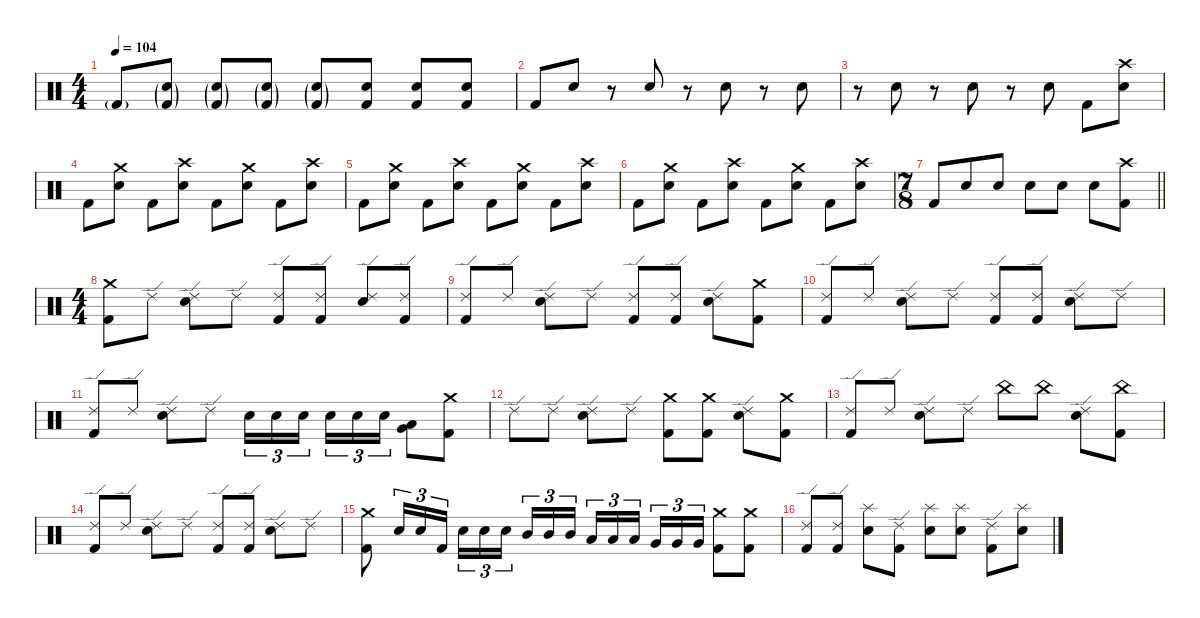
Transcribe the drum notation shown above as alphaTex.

\defaultSystemsLayout 4
\hideDynamics
\bracketExtendMode nobrackets
\singleTrackTrackNamePolicy hidden
\multiTrackTrackNamePolicy hidden
\firstSystemTrackNameMode fullname
\firstSystemTrackNameOrientation horizontal
\otherSystemsTrackNameOrientation horizontal
\track ("Drums" "drm.") {instrument percussion}
\staff {score}
\articulation defaults
\ts (4 4)
\tempo 104
\clef neutral
\ks c "Kick (hit) 2"{g}.8{dy mp beam Up}
("Snare (hit) 2"{g} "Kick (hit) 2"{g}).8{beam Up} ("Snare (hit) 2"{g} "Kick (hit) 2"{g}).8{beam Up} ("Snare (hit) 2"{g} "Kick (hit) 2"{g}).8{dy mf beam Up} ("Snare (hit) 2"{g} "Kick (hit) 2"{g}).8{beam Up} ("Snare (hit) 2" "Kick (hit) 2").8{beam Up} ("Snare (hit) 2" "Kick (hit) 2").8{beam Up} ("Snare (hit) 2" "Kick (hit) 2").8{beam Up} |
"Kick (hit) 2".8{dy f beam Up} "Snare (hit) 2".8{beam Up} r.8{beam Up} "Snare (hit) 2".8{beam Down} r.8{beam Down} "Snare (hit) 2".8{beam Down} r.8{beam Down} "Snare (hit) 2".8{beam Down} |
r.8{beam Down} "Snare (hit) 2".8{beam Down} r.8{beam Down} "Snare (hit) 2".8{beam Down} r.8{beam Down} "Snare (hit) 2".8{beam Down} "Kick (hit) 2".8{beam Down} ("Crash high (hit)" "Snare (hit) 2").8{beam Down} |
"Kick (hit) 2".8{beam Down} ("Crash medium (hit)" "Snare (hit) 2").8{beam Down} "Kick (hit) 2".8{beam Down} ("Crash high (hit)" "Snare (hit) 2").8{beam Down} "Kick (hit) 2".8{beam Down} ("Crash medium (hit)" "Snare (hit) 2").8{beam Down} "Kick (hit) 2".8{beam Down} ("Crash high (hit)" "Snare (hit) 2").8{beam Down} |
"Kick (hit) 2".8{beam Down} ("Crash medium (hit)" "Snare (hit) 2").8{beam Down} "Kick (hit) 2".8{beam Down} ("Crash high (hit)" "Snare (hit) 2").8{beam Down} "Kick (hit) 2".8{beam Down} ("Crash medium (hit)" "Snare (hit) 2").8{beam Down} "Kick (hit) 2".8{beam Down} ("Crash high (hit)" "Snare (hit) 2").8{beam Down} |
"Kick (hit) 2".8{beam Down} ("Crash medium (hit)" "Snare (hit) 2").8{beam Down} "Kick (hit) 2".8{beam Down} ("Crash high (hit)" "Snare (hit) 2").8{beam Down} "Kick (hit) 2".8{beam Down} ("Crash medium (hit)" "Snare (hit) 2").8{beam Down} "Kick (hit) 2".8{beam Down} ("Crash high (hit)" "Snare (hit) 2").8{beam Down} |
\ts (7 8)
\beaming (8 3 2 2)
\barLineRight lightlight "Kick (hit) 2".8{beam Up} "Snare (hit) 2".8{beam Up} "Snare (hit) 2".8{beam Up} "Snare (hit) 2".8{beam Down} "Snare (hit) 2".8{beam Down} "Snare (hit) 2".8{beam Down}
("Crash high (hit)" "Kick (hit) 2").8{beam Down} |
\ts (4 4)
\beaming (8 2 2 2 2)
\section ("" "")
("Crash medium (hit)" "Kick (hit) 2").8{beam Down} "Ride (edge) 2".8{beam Down} ("Ride (edge) 2" "Snare (hit) 2").8{beam Down} "Ride (edge) 2".8{beam Down} ("Ride (edge) 2" "Kick (hit) 2").8{beam Up} ("Ride (edge) 2" "Kick (hit) 2").8{beam Up} ("Ride (edge) 2" "Snare (hit) 2").8{beam Up} ("Ride (edge) 2" "Kick (hit) 2").8{beam Up} |
("Ride (edge) 2" "Kick (hit) 2").8{beam Up} "Ride (edge) 2".8{beam Up} ("Ride (edge) 2" "Snare (hit) 2").8{beam Down} "Ride (edge) 2".8{beam Down} ("Ride (edge) 2" "Kick (hit) 2").8{beam Up} ("Ride (edge) 2" "Kick (hit) 2").8{beam Up} ("Ride (edge) 2" "Snare (hit) 2").8{beam Down} ("Crash medium (hit)" "Kick (hit) 2").8{beam Down} |
("Ride (edge) 2" "Kick (hit) 2").8{beam Up} "Ride (edge) 2".8{beam Up} ("Ride (edge) 2" "Snare (hit) 2").8{beam Down} "Ride (edge) 2".8{beam Down} ("Ride (edge) 2" "Kick (hit) 2").8{beam Up} ("Ride (edge) 2" "Kick (hit) 2").8{beam Up} ("Ride (edge) 2" "Snare (hit) 2").8{beam Down} "Ride (edge) 2".8{beam Down} |
("Ride (edge) 2" "Kick (hit) 2").8{beam Up} "Ride (edge) 2".8{beam Up} ("Ride (edge) 2" "Snare (hit) 2").8{beam Down} "Ride (edge) 2".8{beam Down} "Snare (hit) 2".16{tu (3 2) beam Down} "Snare (hit) 2".16{tu (3 2) beam Down} "Snare (hit) 2".16{tu (3 2) beam Down} "Snare (hit) 2".16{tu (3 2) beam Down} "Snare (hit) 2".16{tu (3 2) beam Down} "Snare (hit) 2".16{tu (3 2) beam Down} ("Low Tom (hit)" "Very Low Tom (hit)").8{beam Down} ("Crash medium (hit)" "Kick (hit) 2").8{beam Down} |
"Ride (edge) 2".8{beam Down} "Ride (edge) 2".8{beam Down} ("Ride (edge) 2" "Snare (hit) 2").8{beam Down} "Ride (edge) 2".8{beam Down} ("Crash medium (hit)" "Kick (hit) 2").8{beam Down} ("Crash medium (hit)" "Kick (hit) 2").8{beam Down} ("Ride (edge) 2" "Snare (hit) 2").8{beam Down} ("Crash medium (hit)" "Kick (hit) 2").8{beam Down} |
("Ride (edge) 2" "Kick (hit) 2").8{beam Up} "Ride (edge) 2".8{beam Up} ("Ride (edge) 2" "Snare (hit) 2").8{beam Down} "Ride (edge) 2".8{beam Down} "China (hit)".8{beam Down} "China (hit)".8{beam Down} ("Ride (edge) 2" "Snare (hit) 2").8{beam Down} ("China (hit)" "Kick (hit) 2").8{beam Down} |
("Ride (edge) 2" "Kick (hit) 2").8{beam Up} "Ride (edge) 2".8{beam Up} ("Ride (edge) 2" "Snare (hit) 2").8{beam Down} "Ride (edge) 2".8{beam Down} ("Ride (edge) 2" "Kick (hit) 2").8{beam Up} ("Ride (edge) 2" "Kick (hit) 2").8{beam Up} ("Ride (edge) 2" "Snare (hit) 2").8{beam Down} "Ride (edge) 2".8{beam Down} |
("Crash medium (hit)" "Kick (hit) 2").8{beam Down} "Snare (hit) 2".16{tu (3 2) beam Up} "Snare (hit) 2".16{tu (3 2) beam Up} "Kick (hit) 2".16{tu (3 2) beam Up} "Snare (hit) 2".16{tu (3 2) beam Down} "Snare (hit) 2".16{tu (3 2) beam Down} "Snare (hit) 2".16{tu (3 2) beam Down} "Mid Tom (hit)".16{tu (3 2) beam Up} "Mid Tom (hit)".16{tu (3 2) beam Up} "Mid Tom (hit)".16{tu (3 2) beam Up} "Low Tom (hit)".16{tu (3 2) beam Up} "Low Tom (hit)".16{tu (3 2) beam Up} "Low Tom (hit)".16{tu (3 2) beam Up} "Very Low Tom (hit)".16{tu (3 2) beam Up} "Very Low Tom (hit)".16{tu (3 2) beam Up} "Very Low Tom (hit)".16{tu (3 2) beam Up} ("Crash medium (hit)" "Kick (hit) 2").8{beam Down} ("Crash medium (hit)" "Kick (hit) 2").8{beam Down} |
("Ride (edge) 2" "Kick (hit) 2").8{beam Up} ("Ride (edge) 2" "Kick (hit) 2").8{beam Up} ("Splash (hit)" "Snare (hit) 2").8{beam Down} ("Ride (edge) 2" "Kick (hit) 2").8{beam Down} ("Splash (hit)" "Snare (hit) 2").8{beam Down} ("Splash (hit)" "Snare (hit) 2").8{beam Down} ("Ride (edge) 2" "Kick (hit) 2").8{beam Down} ("Splash (hit)" "Snare (hit) 2").8{beam Down}
